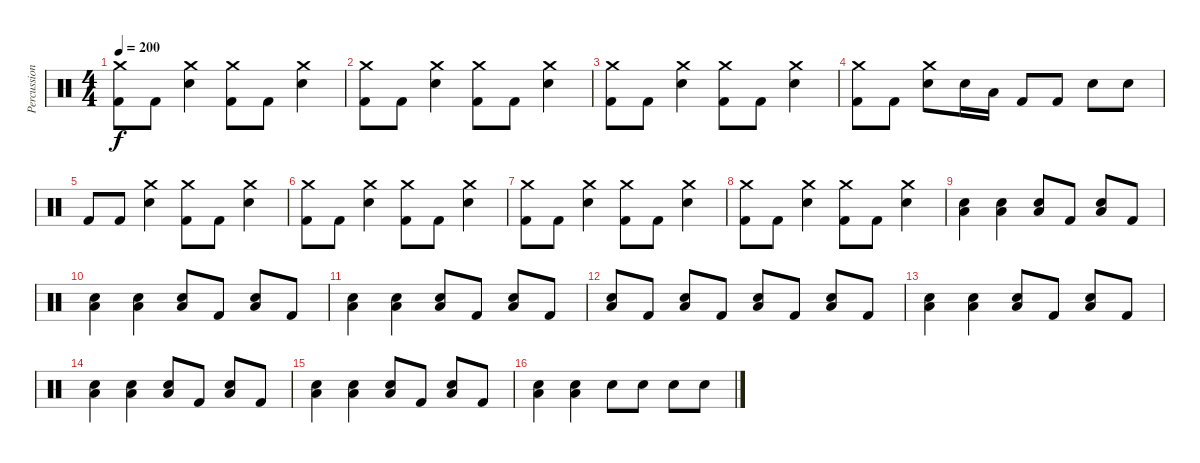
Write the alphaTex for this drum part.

\track ("Percussion" "Percussion") {instrument percussion}
\staff {score}
\articulation defaults
\ts (4 4)
\tempo 200
\clef neutral
\ks c
("Crash medium (hit)" "Kick (hit) 2").8{dy f} "Kick (hit) 2".8 ("Crash medium (hit)" "Electric Snare (hit)").4 ("Crash medium (hit)" "Kick (hit) 2").8 "Kick (hit) 2".8 ("Crash medium (hit)" "Electric Snare (hit)").4 |
("Crash medium (hit)" "Kick (hit) 2").8 "Kick (hit) 2".8 ("Crash medium (hit)" "Electric Snare (hit)").4 ("Crash medium (hit)" "Kick (hit) 2").8 "Kick (hit) 2".8 ("Crash medium (hit)" "Electric Snare (hit)").4 |
("Crash medium (hit)" "Kick (hit) 2").8 "Kick (hit) 2".8 ("Crash medium (hit)" "Electric Snare (hit)").4 ("Crash medium (hit)" "Kick (hit) 2").8 "Kick (hit) 2".8 ("Crash medium (hit)" "Electric Snare (hit)").4 |
("Crash medium (hit)" "Kick (hit) 2").8 "Kick (hit) 2".8 ("Crash medium (hit)" "Electric Snare (hit)").8 "Electric Snare (hit)".16 "Low Floor Tom (hit)".16 "Kick (hit) 2".8 "Kick (hit) 2".8 "Electric Snare (hit)".8 "Electric Snare (hit)".8 |
"Kick (hit) 2".8 "Kick (hit) 2".8 ("Crash medium (hit)" "Electric Snare (hit)").4 ("Crash medium (hit)" "Kick (hit) 2").8 "Kick (hit) 2".8 ("Crash medium (hit)" "Electric Snare (hit)").4 |
("Crash medium (hit)" "Kick (hit) 2").8 "Kick (hit) 2".8 ("Crash medium (hit)" "Electric Snare (hit)").4 ("Crash medium (hit)" "Kick (hit) 2").8 "Kick (hit) 2".8 ("Crash medium (hit)" "Electric Snare (hit)").4 |
("Crash medium (hit)" "Kick (hit) 2").8 "Kick (hit) 2".8 ("Crash medium (hit)" "Electric Snare (hit)").4 ("Crash medium (hit)" "Kick (hit) 2").8 "Kick (hit) 2".8 ("Crash medium (hit)" "Electric Snare (hit)").4 |
("Crash medium (hit)" "Kick (hit) 2").8 "Kick (hit) 2".8 ("Crash medium (hit)" "Electric Snare (hit)").4 ("Crash medium (hit)" "Kick (hit) 2").8 "Kick (hit) 2".8 ("Crash medium (hit)" "Electric Snare (hit)").4 |
("Low Floor Tom (hit)" "Electric Snare (hit)").4 ("Low Floor Tom (hit)" "Electric Snare (hit)").4 ("Low Floor Tom (hit)" "Electric Snare (hit)").8 "Kick (hit) 2".8 ("Low Floor Tom (hit)" "Electric Snare (hit)").8 "Kick (hit) 2".8 |
("Low Floor Tom (hit)" "Electric Snare (hit)").4 ("Low Floor Tom (hit)" "Electric Snare (hit)").4 ("Low Floor Tom (hit)" "Electric Snare (hit)").8 "Kick (hit) 2".8 ("Low Floor Tom (hit)" "Electric Snare (hit)").8 "Kick (hit) 2".8 |
("Low Floor Tom (hit)" "Electric Snare (hit)").4 ("Low Floor Tom (hit)" "Electric Snare (hit)").4 ("Low Floor Tom (hit)" "Electric Snare (hit)").8 "Kick (hit) 2".8 ("Low Floor Tom (hit)" "Electric Snare (hit)").8 "Kick (hit) 2".8 |
("Low Floor Tom (hit)" "Electric Snare (hit)").8 "Kick (hit) 2".8 ("Low Floor Tom (hit)" "Electric Snare (hit)").8 "Kick (hit) 2".8 ("Low Floor Tom (hit)" "Electric Snare (hit)").8 "Kick (hit) 2".8 ("Low Floor Tom (hit)" "Electric Snare (hit)").8 "Kick (hit) 2".8 |
("Low Floor Tom (hit)" "Electric Snare (hit)").4 ("Low Floor Tom (hit)" "Electric Snare (hit)").4 ("Low Floor Tom (hit)" "Electric Snare (hit)").8 "Kick (hit) 2".8 ("Low Floor Tom (hit)" "Electric Snare (hit)").8 "Kick (hit) 2".8 |
("Low Floor Tom (hit)" "Electric Snare (hit)").4 ("Low Floor Tom (hit)" "Electric Snare (hit)").4 ("Low Floor Tom (hit)" "Electric Snare (hit)").8 "Kick (hit) 2".8 ("Low Floor Tom (hit)" "Electric Snare (hit)").8 "Kick (hit) 2".8 |
("Low Floor Tom (hit)" "Electric Snare (hit)").4 ("Low Floor Tom (hit)" "Electric Snare (hit)").4 ("Low Floor Tom (hit)" "Electric Snare (hit)").8 "Kick (hit) 2".8 ("Low Floor Tom (hit)" "Electric Snare (hit)").8 "Kick (hit) 2".8 |
("Low Floor Tom (hit)" "Electric Snare (hit)").4 ("Low Floor Tom (hit)" "Electric Snare (hit)").4 "Electric Snare (hit)".8 "Electric Snare (hit)".8 "Electric Snare (hit)".8 "Electric Snare (hit)".8
